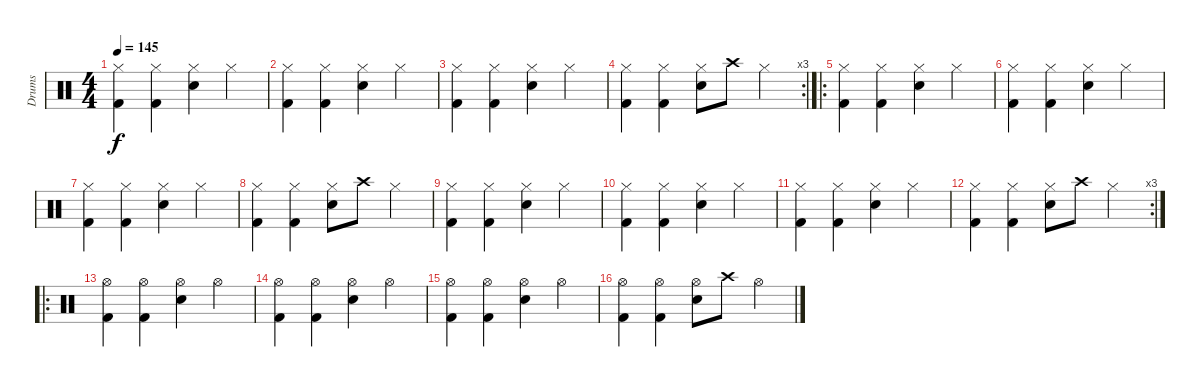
\track ("Drums" "Drums") {instrument percussion}
\staff {score}
\articulation defaults
\ts (4 4)
\tempo 145
\clef neutral
\ks c
("Hi-Hat (closed)" "Kick (hit) 2").4{dy f} ("Hi-Hat (closed)" "Kick (hit) 2").4 ("Hi-Hat (closed)" "Electric Snare (hit)").4 "Hi-Hat (closed)".4 |
("Hi-Hat (closed)" "Kick (hit) 2").4 ("Hi-Hat (closed)" "Kick (hit) 2").4 ("Hi-Hat (closed)" "Electric Snare (hit)").4 "Hi-Hat (closed)".4 |
("Hi-Hat (closed)" "Kick (hit) 2").4 ("Hi-Hat (closed)" "Kick (hit) 2").4 ("Hi-Hat (closed)" "Electric Snare (hit)").4 "Hi-Hat (closed)".4 |
\rc 3
("Hi-Hat (closed)" "Kick (hit) 2").4 ("Hi-Hat (closed)" "Kick (hit) 2").4 ("Hi-Hat (closed)" "Electric Snare (hit)").8 "Crash high (hit)".8 "Hi-Hat (closed)".4 |
\ro
("Hi-Hat (closed)" "Kick (hit) 2").4 ("Hi-Hat (closed)" "Kick (hit) 2").4 ("Hi-Hat (closed)" "Electric Snare (hit)").4 "Hi-Hat (closed)".4 |
("Hi-Hat (closed)" "Kick (hit) 2").4 ("Hi-Hat (closed)" "Kick (hit) 2").4 ("Hi-Hat (closed)" "Electric Snare (hit)").4 "Hi-Hat (closed)".4 |
("Hi-Hat (closed)" "Kick (hit) 2").4 ("Hi-Hat (closed)" "Kick (hit) 2").4 ("Hi-Hat (closed)" "Electric Snare (hit)").4 "Hi-Hat (closed)".4 |
("Hi-Hat (closed)" "Kick (hit) 2").4 ("Hi-Hat (closed)" "Kick (hit) 2").4 ("Hi-Hat (closed)" "Electric Snare (hit)").8 "Crash high (hit)".8 "Hi-Hat (closed)".4 |
("Hi-Hat (closed)" "Kick (hit) 2").4 ("Hi-Hat (closed)" "Kick (hit) 2").4 ("Hi-Hat (closed)" "Electric Snare (hit)").4 "Hi-Hat (closed)".4 |
("Hi-Hat (closed)" "Kick (hit) 2").4 ("Hi-Hat (closed)" "Kick (hit) 2").4 ("Hi-Hat (closed)" "Electric Snare (hit)").4 "Hi-Hat (closed)".4 |
("Hi-Hat (closed)" "Kick (hit) 2").4 ("Hi-Hat (closed)" "Kick (hit) 2").4 ("Hi-Hat (closed)" "Electric Snare (hit)").4 "Hi-Hat (closed)".4 |
\rc 3
("Hi-Hat (closed)" "Kick (hit) 2").4 ("Hi-Hat (closed)" "Kick (hit) 2").4 ("Hi-Hat (closed)" "Electric Snare (hit)").8 "Crash high (hit)".8 "Hi-Hat (closed)".4 |
\ro
("Hi-Hat (open)" "Kick (hit) 2").4 ("Hi-Hat (open)" "Kick (hit) 2").4 ("Hi-Hat (open)" "Electric Snare (hit)").4 "Hi-Hat (open)".4 |
("Hi-Hat (open)" "Kick (hit) 2").4 ("Hi-Hat (open)" "Kick (hit) 2").4 ("Hi-Hat (open)" "Electric Snare (hit)").4 "Hi-Hat (open)".4 |
("Hi-Hat (open)" "Kick (hit) 2").4 ("Hi-Hat (open)" "Kick (hit) 2").4 ("Hi-Hat (open)" "Electric Snare (hit)").4 "Hi-Hat (open)".4 |
("Hi-Hat (open)" "Kick (hit) 2").4 ("Hi-Hat (open)" "Kick (hit) 2").4 ("Hi-Hat (open)" "Electric Snare (hit)").8 "Crash high (hit)".8 "Hi-Hat (open)".4
